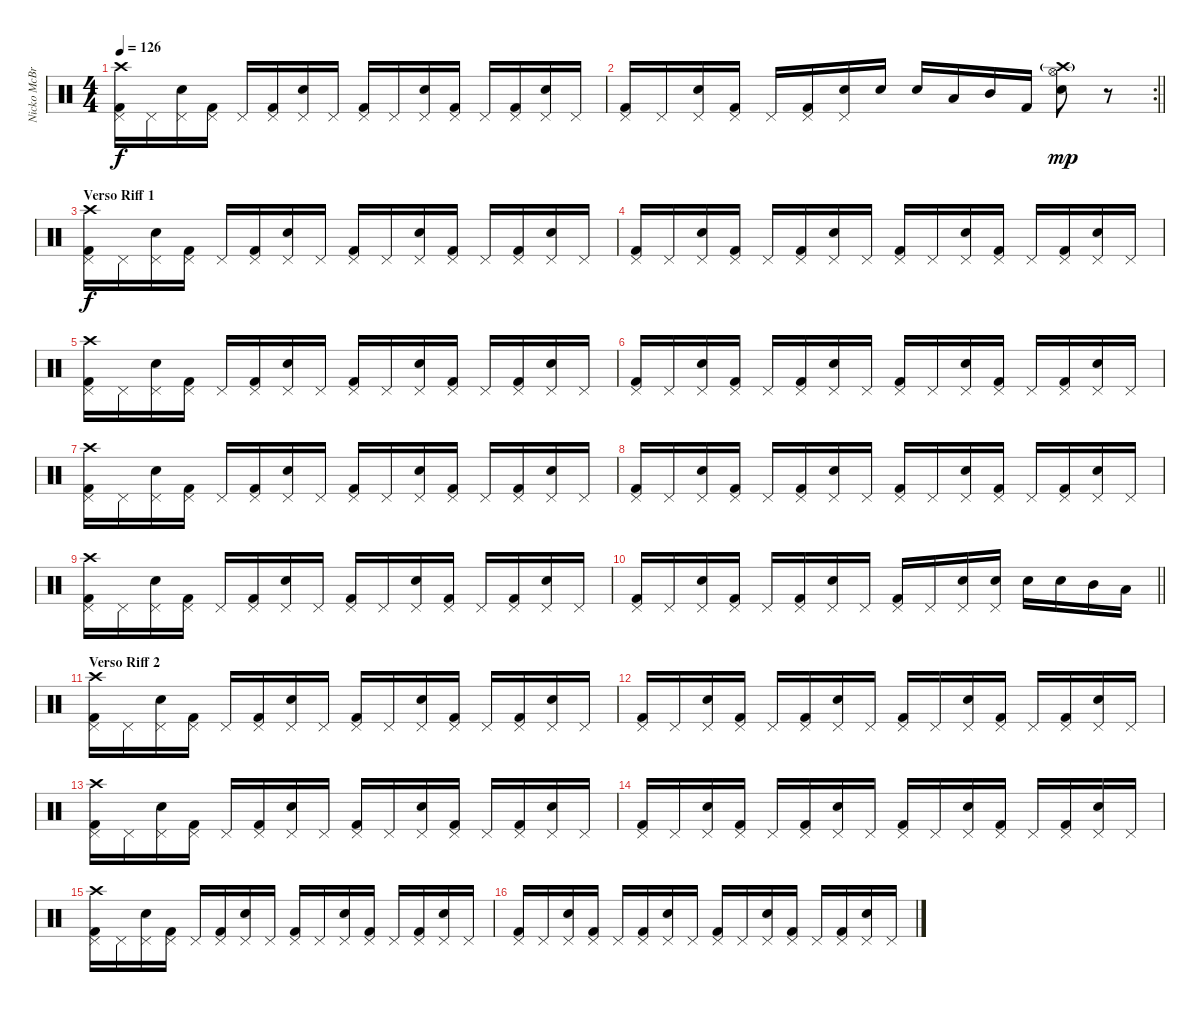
\track ("Nicko McBrain" "Nicko McBr") {instrument percussion}
\staff {score}
\articulation defaults
\ts (4 4)
\tempo 126
\clef neutral
\ks c
("Kick (hit) 2" "Pedal Hi-Hat (hit)" "Crash high (hit)").16{dy f} "Pedal Hi-Hat (hit)".16 ("Snare (hit) 2" "Pedal Hi-Hat (hit)").16 ("Kick (hit) 2" "Pedal Hi-Hat (hit)").16 "Pedal Hi-Hat (hit)".16 ("Kick (hit) 2" "Pedal Hi-Hat (hit)").16 ("Snare (hit) 2" "Pedal Hi-Hat (hit)").16 "Pedal Hi-Hat (hit)".16 ("Kick (hit) 2" "Pedal Hi-Hat (hit)").16 "Pedal Hi-Hat (hit)".16 ("Snare (hit) 2" "Pedal Hi-Hat (hit)").16 ("Kick (hit) 2" "Pedal Hi-Hat (hit)").16 "Pedal Hi-Hat (hit)".16 ("Kick (hit) 2" "Pedal Hi-Hat (hit)").16 ("Snare (hit) 2" "Pedal Hi-Hat (hit)").16 "Pedal Hi-Hat (hit)".16 |
\rc 2
\barLineRight lightlight
("Kick (hit) 2" "Pedal Hi-Hat (hit)").16 "Pedal Hi-Hat (hit)".16 ("Snare (hit) 2" "Pedal Hi-Hat (hit)").16 ("Kick (hit) 2" "Pedal Hi-Hat (hit)").16 "Pedal Hi-Hat (hit)".16 ("Kick (hit) 2" "Pedal Hi-Hat (hit)").16 ("Snare (hit) 2" "Pedal Hi-Hat (hit)").16 "Snare (hit) 2".16 "Snare (hit) 2".16 "Low Tom (hit)".16 "Mid Tom (hit)".16 "Kick (hit) 2".16 ("Snare (hit) 2" "Hi-Hat (open)" "Crash high (hit)"{g}).8{dy mp} r.8 |
\section ("" "Verso Riff 1")
("Kick (hit) 2" "Pedal Hi-Hat (hit)" "Crash high (hit)").16{dy f} "Pedal Hi-Hat (hit)".16 ("Snare (hit) 2" "Pedal Hi-Hat (hit)").16 ("Kick (hit) 2" "Pedal Hi-Hat (hit)").16 "Pedal Hi-Hat (hit)".16 ("Kick (hit) 2" "Pedal Hi-Hat (hit)").16 ("Snare (hit) 2" "Pedal Hi-Hat (hit)").16 "Pedal Hi-Hat (hit)".16 ("Kick (hit) 2" "Pedal Hi-Hat (hit)").16 "Pedal Hi-Hat (hit)".16 ("Snare (hit) 2" "Pedal Hi-Hat (hit)").16 ("Kick (hit) 2" "Pedal Hi-Hat (hit)").16 "Pedal Hi-Hat (hit)".16 ("Kick (hit) 2" "Pedal Hi-Hat (hit)").16 ("Snare (hit) 2" "Pedal Hi-Hat (hit)").16 "Pedal Hi-Hat (hit)".16 |
("Kick (hit) 2" "Pedal Hi-Hat (hit)").16 "Pedal Hi-Hat (hit)".16 ("Snare (hit) 2" "Pedal Hi-Hat (hit)").16 ("Kick (hit) 2" "Pedal Hi-Hat (hit)").16 "Pedal Hi-Hat (hit)".16 ("Kick (hit) 2" "Pedal Hi-Hat (hit)").16 ("Snare (hit) 2" "Pedal Hi-Hat (hit)").16 "Pedal Hi-Hat (hit)".16 ("Kick (hit) 2" "Pedal Hi-Hat (hit)").16 "Pedal Hi-Hat (hit)".16 ("Snare (hit) 2" "Pedal Hi-Hat (hit)").16 ("Kick (hit) 2" "Pedal Hi-Hat (hit)").16 "Pedal Hi-Hat (hit)".16 ("Kick (hit) 2" "Pedal Hi-Hat (hit)").16 ("Snare (hit) 2" "Pedal Hi-Hat (hit)").16 "Pedal Hi-Hat (hit)".16 |
("Kick (hit) 2" "Pedal Hi-Hat (hit)" "Crash high (hit)").16 "Pedal Hi-Hat (hit)".16 ("Snare (hit) 2" "Pedal Hi-Hat (hit)").16 ("Kick (hit) 2" "Pedal Hi-Hat (hit)").16 "Pedal Hi-Hat (hit)".16 ("Kick (hit) 2" "Pedal Hi-Hat (hit)").16 ("Snare (hit) 2" "Pedal Hi-Hat (hit)").16 "Pedal Hi-Hat (hit)".16 ("Kick (hit) 2" "Pedal Hi-Hat (hit)").16 "Pedal Hi-Hat (hit)".16 ("Snare (hit) 2" "Pedal Hi-Hat (hit)").16 ("Kick (hit) 2" "Pedal Hi-Hat (hit)").16 "Pedal Hi-Hat (hit)".16 ("Kick (hit) 2" "Pedal Hi-Hat (hit)").16 ("Snare (hit) 2" "Pedal Hi-Hat (hit)").16 "Pedal Hi-Hat (hit)".16 |
("Kick (hit) 2" "Pedal Hi-Hat (hit)").16 "Pedal Hi-Hat (hit)".16 ("Snare (hit) 2" "Pedal Hi-Hat (hit)").16 ("Kick (hit) 2" "Pedal Hi-Hat (hit)").16 "Pedal Hi-Hat (hit)".16 ("Kick (hit) 2" "Pedal Hi-Hat (hit)").16 ("Snare (hit) 2" "Pedal Hi-Hat (hit)").16 "Pedal Hi-Hat (hit)".16 ("Kick (hit) 2" "Pedal Hi-Hat (hit)").16 "Pedal Hi-Hat (hit)".16 ("Snare (hit) 2" "Pedal Hi-Hat (hit)").16 ("Kick (hit) 2" "Pedal Hi-Hat (hit)").16 "Pedal Hi-Hat (hit)".16 ("Kick (hit) 2" "Pedal Hi-Hat (hit)").16 ("Snare (hit) 2" "Pedal Hi-Hat (hit)").16 "Pedal Hi-Hat (hit)".16 |
("Kick (hit) 2" "Pedal Hi-Hat (hit)" "Crash high (hit)").16 "Pedal Hi-Hat (hit)".16 ("Snare (hit) 2" "Pedal Hi-Hat (hit)").16 ("Kick (hit) 2" "Pedal Hi-Hat (hit)").16 "Pedal Hi-Hat (hit)".16 ("Kick (hit) 2" "Pedal Hi-Hat (hit)").16 ("Snare (hit) 2" "Pedal Hi-Hat (hit)").16 "Pedal Hi-Hat (hit)".16 ("Kick (hit) 2" "Pedal Hi-Hat (hit)").16 "Pedal Hi-Hat (hit)".16 ("Snare (hit) 2" "Pedal Hi-Hat (hit)").16 ("Kick (hit) 2" "Pedal Hi-Hat (hit)").16 "Pedal Hi-Hat (hit)".16 ("Kick (hit) 2" "Pedal Hi-Hat (hit)").16 ("Snare (hit) 2" "Pedal Hi-Hat (hit)").16 "Pedal Hi-Hat (hit)".16 |
("Kick (hit) 2" "Pedal Hi-Hat (hit)").16 "Pedal Hi-Hat (hit)".16 ("Snare (hit) 2" "Pedal Hi-Hat (hit)").16 ("Kick (hit) 2" "Pedal Hi-Hat (hit)").16 "Pedal Hi-Hat (hit)".16 ("Kick (hit) 2" "Pedal Hi-Hat (hit)").16 ("Snare (hit) 2" "Pedal Hi-Hat (hit)").16 "Pedal Hi-Hat (hit)".16 ("Kick (hit) 2" "Pedal Hi-Hat (hit)").16 "Pedal Hi-Hat (hit)".16 ("Snare (hit) 2" "Pedal Hi-Hat (hit)").16 ("Kick (hit) 2" "Pedal Hi-Hat (hit)").16 "Pedal Hi-Hat (hit)".16 ("Kick (hit) 2" "Pedal Hi-Hat (hit)").16 ("Snare (hit) 2" "Pedal Hi-Hat (hit)").16 "Pedal Hi-Hat (hit)".16 |
("Kick (hit) 2" "Pedal Hi-Hat (hit)" "Crash high (hit)").16 "Pedal Hi-Hat (hit)".16 ("Snare (hit) 2" "Pedal Hi-Hat (hit)").16 ("Kick (hit) 2" "Pedal Hi-Hat (hit)").16 "Pedal Hi-Hat (hit)".16 ("Kick (hit) 2" "Pedal Hi-Hat (hit)").16 ("Snare (hit) 2" "Pedal Hi-Hat (hit)").16 "Pedal Hi-Hat (hit)".16 ("Kick (hit) 2" "Pedal Hi-Hat (hit)").16 "Pedal Hi-Hat (hit)".16 ("Snare (hit) 2" "Pedal Hi-Hat (hit)").16 ("Kick (hit) 2" "Pedal Hi-Hat (hit)").16 "Pedal Hi-Hat (hit)".16 ("Kick (hit) 2" "Pedal Hi-Hat (hit)").16 ("Snare (hit) 2" "Pedal Hi-Hat (hit)").16 "Pedal Hi-Hat (hit)".16 |
\barLineRight lightlight
("Kick (hit) 2" "Pedal Hi-Hat (hit)").16 "Pedal Hi-Hat (hit)".16 ("Snare (hit) 2" "Pedal Hi-Hat (hit)").16 ("Kick (hit) 2" "Pedal Hi-Hat (hit)").16 "Pedal Hi-Hat (hit)".16 ("Kick (hit) 2" "Pedal Hi-Hat (hit)").16 ("Snare (hit) 2" "Pedal Hi-Hat (hit)").16 "Pedal Hi-Hat (hit)".16 ("Kick (hit) 2" "Pedal Hi-Hat (hit)").16 "Pedal Hi-Hat (hit)".16 ("Snare (hit) 2" "Pedal Hi-Hat (hit)").16 ("Snare (hit) 2" "Pedal Hi-Hat (hit)").16 "Snare (hit) 2".16 "Snare (hit) 2".16 "Mid Tom (hit)".16 "Low Tom (hit)".16 |
\section ("" "Verso Riff 2")
("Kick (hit) 2" "Pedal Hi-Hat (hit)" "Crash high (hit)").16 "Pedal Hi-Hat (hit)".16 ("Snare (hit) 2" "Pedal Hi-Hat (hit)").16 ("Kick (hit) 2" "Pedal Hi-Hat (hit)").16 "Pedal Hi-Hat (hit)".16 ("Kick (hit) 2" "Pedal Hi-Hat (hit)").16 ("Snare (hit) 2" "Pedal Hi-Hat (hit)").16 "Pedal Hi-Hat (hit)".16 ("Kick (hit) 2" "Pedal Hi-Hat (hit)").16 "Pedal Hi-Hat (hit)".16 ("Snare (hit) 2" "Pedal Hi-Hat (hit)").16 ("Kick (hit) 2" "Pedal Hi-Hat (hit)").16 "Pedal Hi-Hat (hit)".16 ("Kick (hit) 2" "Pedal Hi-Hat (hit)").16 ("Snare (hit) 2" "Pedal Hi-Hat (hit)").16 "Pedal Hi-Hat (hit)".16 |
("Kick (hit) 2" "Pedal Hi-Hat (hit)").16 "Pedal Hi-Hat (hit)".16 ("Snare (hit) 2" "Pedal Hi-Hat (hit)").16 ("Kick (hit) 2" "Pedal Hi-Hat (hit)").16 "Pedal Hi-Hat (hit)".16 ("Kick (hit) 2" "Pedal Hi-Hat (hit)").16 ("Snare (hit) 2" "Pedal Hi-Hat (hit)").16 "Pedal Hi-Hat (hit)".16 ("Kick (hit) 2" "Pedal Hi-Hat (hit)").16 "Pedal Hi-Hat (hit)".16 ("Snare (hit) 2" "Pedal Hi-Hat (hit)").16 ("Kick (hit) 2" "Pedal Hi-Hat (hit)").16 "Pedal Hi-Hat (hit)".16 ("Kick (hit) 2" "Pedal Hi-Hat (hit)").16 ("Snare (hit) 2" "Pedal Hi-Hat (hit)").16 "Pedal Hi-Hat (hit)".16 |
("Kick (hit) 2" "Pedal Hi-Hat (hit)" "Crash high (hit)").16 "Pedal Hi-Hat (hit)".16 ("Snare (hit) 2" "Pedal Hi-Hat (hit)").16 ("Kick (hit) 2" "Pedal Hi-Hat (hit)").16 "Pedal Hi-Hat (hit)".16 ("Kick (hit) 2" "Pedal Hi-Hat (hit)").16 ("Snare (hit) 2" "Pedal Hi-Hat (hit)").16 "Pedal Hi-Hat (hit)".16 ("Kick (hit) 2" "Pedal Hi-Hat (hit)").16 "Pedal Hi-Hat (hit)".16 ("Snare (hit) 2" "Pedal Hi-Hat (hit)").16 ("Kick (hit) 2" "Pedal Hi-Hat (hit)").16 "Pedal Hi-Hat (hit)".16 ("Kick (hit) 2" "Pedal Hi-Hat (hit)").16 ("Snare (hit) 2" "Pedal Hi-Hat (hit)").16 "Pedal Hi-Hat (hit)".16 |
("Kick (hit) 2" "Pedal Hi-Hat (hit)").16 "Pedal Hi-Hat (hit)".16 ("Snare (hit) 2" "Pedal Hi-Hat (hit)").16 ("Kick (hit) 2" "Pedal Hi-Hat (hit)").16 "Pedal Hi-Hat (hit)".16 ("Kick (hit) 2" "Pedal Hi-Hat (hit)").16 ("Snare (hit) 2" "Pedal Hi-Hat (hit)").16 "Pedal Hi-Hat (hit)".16 ("Kick (hit) 2" "Pedal Hi-Hat (hit)").16 "Pedal Hi-Hat (hit)".16 ("Snare (hit) 2" "Pedal Hi-Hat (hit)").16 ("Kick (hit) 2" "Pedal Hi-Hat (hit)").16 "Pedal Hi-Hat (hit)".16 ("Kick (hit) 2" "Pedal Hi-Hat (hit)").16 ("Snare (hit) 2" "Pedal Hi-Hat (hit)").16 "Pedal Hi-Hat (hit)".16 |
("Kick (hit) 2" "Pedal Hi-Hat (hit)" "Crash high (hit)").16 "Pedal Hi-Hat (hit)".16 ("Snare (hit) 2" "Pedal Hi-Hat (hit)").16 ("Kick (hit) 2" "Pedal Hi-Hat (hit)").16 "Pedal Hi-Hat (hit)".16 ("Kick (hit) 2" "Pedal Hi-Hat (hit)").16 ("Snare (hit) 2" "Pedal Hi-Hat (hit)").16 "Pedal Hi-Hat (hit)".16 ("Kick (hit) 2" "Pedal Hi-Hat (hit)").16 "Pedal Hi-Hat (hit)".16 ("Snare (hit) 2" "Pedal Hi-Hat (hit)").16 ("Kick (hit) 2" "Pedal Hi-Hat (hit)").16 "Pedal Hi-Hat (hit)".16 ("Kick (hit) 2" "Pedal Hi-Hat (hit)").16 ("Snare (hit) 2" "Pedal Hi-Hat (hit)").16 "Pedal Hi-Hat (hit)".16 |
("Kick (hit) 2" "Pedal Hi-Hat (hit)").16 "Pedal Hi-Hat (hit)".16 ("Snare (hit) 2" "Pedal Hi-Hat (hit)").16 ("Kick (hit) 2" "Pedal Hi-Hat (hit)").16 "Pedal Hi-Hat (hit)".16 ("Kick (hit) 2" "Pedal Hi-Hat (hit)").16 ("Snare (hit) 2" "Pedal Hi-Hat (hit)").16 "Pedal Hi-Hat (hit)".16 ("Kick (hit) 2" "Pedal Hi-Hat (hit)").16 "Pedal Hi-Hat (hit)".16 ("Snare (hit) 2" "Pedal Hi-Hat (hit)").16 ("Kick (hit) 2" "Pedal Hi-Hat (hit)").16 "Pedal Hi-Hat (hit)".16 ("Kick (hit) 2" "Pedal Hi-Hat (hit)").16 ("Snare (hit) 2" "Pedal Hi-Hat (hit)").16 "Pedal Hi-Hat (hit)".16
